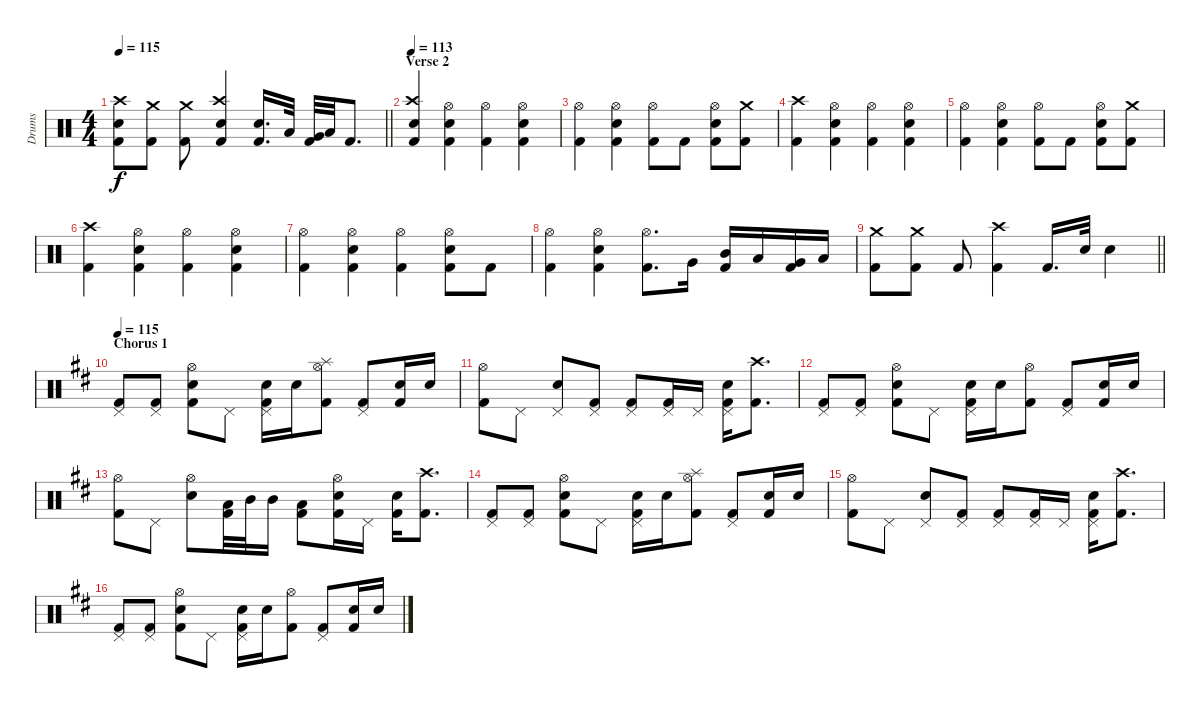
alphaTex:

\track ("Drums" "Drums") {instrument percussion}
\staff {score}
\articulation defaults
\ts (4 4)
\tempo 115
\clef neutral
\barLineRight lightlight
\ks c
("Snare (hit) 2" "Crash high (hit)" "Kick (hit) 2").8{dy f} ("Crash medium (hit)" "Kick (hit) 2").8 ("Kick (hit) 2" "Crash medium (hit)").8 ("Snare (hit) 2" "Kick (hit) 2" "Crash high (hit)").4 ("Snare (hit) 2" "Kick (hit) 2").16{d} "Low Tom (hit)".32 ("Kick (hit) 2" "Very Low Tom (hit)").32 "Low Floor Tom (hit)".32 "Kick (hit) 2".8{d} |
\section ("" "Verse 2")
\tempo 113
("Snare (hit) 2" "Crash high (hit)" "Kick (hit) 2").4 ("Snare (hit) 2" "Hi-Hat (open)" "Kick (hit) 2").4 ("Hi-Hat (open)" "Kick (hit) 2").4 ("Snare (hit) 2" "Hi-Hat (open)" "Kick (hit) 2").4 |
("Hi-Hat (open)" "Kick (hit) 2").4 ("Snare (hit) 2" "Hi-Hat (open)" "Kick (hit) 2").4 ("Hi-Hat (open)" "Kick (hit) 2").8 "Kick (hit) 2".8 ("Snare (hit) 2" "Hi-Hat (open)" "Kick (hit) 2").8 ("Kick (hit) 2" "Crash medium (hit)").8 |
("Crash high (hit)" "Kick (hit) 2").4 ("Snare (hit) 2" "Hi-Hat (open)" "Kick (hit) 2").4 ("Hi-Hat (open)" "Kick (hit) 2").4 ("Snare (hit) 2" "Hi-Hat (open)" "Kick (hit) 2").4 |
("Hi-Hat (open)" "Kick (hit) 2").4 ("Snare (hit) 2" "Hi-Hat (open)" "Kick (hit) 2").4 ("Hi-Hat (open)" "Kick (hit) 2").8 "Kick (hit) 2".8 ("Snare (hit) 2" "Hi-Hat (open)" "Kick (hit) 2").8 ("Kick (hit) 2" "Crash medium (hit)").8 |
("Kick (hit) 2" "Crash high (hit)").4 ("Hi-Hat (open)" "Kick (hit) 2" "Snare (hit) 2").4 ("Hi-Hat (open)" "Kick (hit) 2").4 ("Snare (hit) 2" "Hi-Hat (open)" "Kick (hit) 2").4 |
("Hi-Hat (open)" "Kick (hit) 2").4 ("Snare (hit) 2" "Hi-Hat (open)" "Kick (hit) 2").4 ("Hi-Hat (open)" "Kick (hit) 2").4 ("Snare (hit) 2" "Kick (hit) 2" "Hi-Hat (open)").8 "Kick (hit) 2".8 |
("Hi-Hat (open)" "Kick (hit) 2").4 ("Snare (hit) 2" "Kick (hit) 2" "Hi-Hat (open)").4 ("Kick (hit) 2" "Hi-Hat (open)").8{d} "Very Low Tom (hit)".16 ("Kick (hit) 2" "Mid Tom (hit)").16 "Low Tom (hit)".16 ("Kick (hit) 2" "Very Low Tom (hit)").16 "Low Floor Tom (hit)".16 |
\barLineRight lightlight
("Kick (hit) 2" "Crash medium (hit)").8 ("Kick (hit) 2" "Crash medium (hit)").8 "Kick (hit) 2".8 ("Kick (hit) 2" "Crash high (hit)").4 "Kick (hit) 2".16{d} "Snare (hit) 2".32 "Snare (hit) 2".4 |
\section ("" "Chorus 1")
\tempo 115
\ks d
("Pedal Hi-Hat (hit)" "Kick (hit) 2").8 ("Kick (hit) 2" "Pedal Hi-Hat (hit)").8 ("Snare (hit) 2" "Hi-Hat (open)" "Kick (hit) 2").8 "Pedal Hi-Hat (hit)".8 ("Kick (hit) 2" "Snare (hit) 2" "Pedal Hi-Hat (hit)").16 "Snare (hit) 2".16 ("Kick (hit) 2" "Splash (hit)" "Hi-Hat (open)").8 ("Kick (hit) 2" "Pedal Hi-Hat (hit)").8 ("Kick (hit) 2" "Snare (hit) 2").16 "Snare (hit) 2".16 |
("Hi-Hat (open)" "Kick (hit) 2").8 "Pedal Hi-Hat (hit)".8 ("Snare (hit) 2" "Pedal Hi-Hat (hit)").8 ("Kick (hit) 2" "Pedal Hi-Hat (hit)").8 ("Kick (hit) 2" "Pedal Hi-Hat (hit)").8 ("Pedal Hi-Hat (hit)" "Kick (hit) 2").16 "Pedal Hi-Hat (hit)".16 ("Pedal Hi-Hat (hit)" "Kick (hit) 2" "Snare (hit) 2").16 ("Kick (hit) 2" "Crash high (hit)").8{d} |
("Pedal Hi-Hat (hit)" "Kick (hit) 2").8 ("Kick (hit) 2" "Pedal Hi-Hat (hit)").8 ("Snare (hit) 2" "Hi-Hat (open)" "Kick (hit) 2").8 "Pedal Hi-Hat (hit)".8 ("Kick (hit) 2" "Snare (hit) 2" "Pedal Hi-Hat (hit)").16 "Snare (hit) 2".16 ("Kick (hit) 2" "Hi-Hat (open)").8 ("Kick (hit) 2" "Pedal Hi-Hat (hit)").8 ("Kick (hit) 2" "Snare (hit) 2").16 "Snare (hit) 2".16 |
("Hi-Hat (open)" "Kick (hit) 2").8 "Pedal Hi-Hat (hit)".8 ("Snare (hit) 2" "Hi-Hat (open)").8 ("Kick (hit) 2" "Low Tom (hit)").32 "Mid Tom (hit)".32 "Mid Tom (hit)".16 ("Kick (hit) 2" "Low Floor Tom (hit)").8 ("Snare (hit) 2" "Hi-Hat (open)" "Kick (hit) 2").16 "Pedal Hi-Hat (hit)".16 ("Kick (hit) 2" "Snare (hit) 2").16 ("Kick (hit) 2" "Crash high (hit)").8{d} |
("Pedal Hi-Hat (hit)" "Kick (hit) 2").8 ("Kick (hit) 2" "Pedal Hi-Hat (hit)").8 ("Snare (hit) 2" "Hi-Hat (open)" "Kick (hit) 2").8 "Pedal Hi-Hat (hit)".8 ("Kick (hit) 2" "Snare (hit) 2" "Pedal Hi-Hat (hit)").16 "Snare (hit) 2".16 ("Kick (hit) 2" "Splash (hit)" "Hi-Hat (open)").8 ("Kick (hit) 2" "Pedal Hi-Hat (hit)").8 ("Kick (hit) 2" "Snare (hit) 2").16 "Snare (hit) 2".16 |
("Hi-Hat (open)" "Kick (hit) 2").8 "Pedal Hi-Hat (hit)".8 ("Snare (hit) 2" "Pedal Hi-Hat (hit)").8 ("Kick (hit) 2" "Pedal Hi-Hat (hit)").8 ("Kick (hit) 2" "Pedal Hi-Hat (hit)").8 ("Pedal Hi-Hat (hit)" "Kick (hit) 2").16 "Pedal Hi-Hat (hit)".16 ("Pedal Hi-Hat (hit)" "Kick (hit) 2" "Snare (hit) 2").16 ("Kick (hit) 2" "Crash high (hit)").8{d} |
("Pedal Hi-Hat (hit)" "Kick (hit) 2").8 ("Kick (hit) 2" "Pedal Hi-Hat (hit)").8 ("Snare (hit) 2" "Hi-Hat (open)" "Kick (hit) 2").8 "Pedal Hi-Hat (hit)".8 ("Kick (hit) 2" "Snare (hit) 2" "Pedal Hi-Hat (hit)").16 "Snare (hit) 2".16 ("Kick (hit) 2" "Hi-Hat (open)").8 ("Kick (hit) 2" "Pedal Hi-Hat (hit)").8 ("Kick (hit) 2" "Snare (hit) 2").16 "Snare (hit) 2".16
